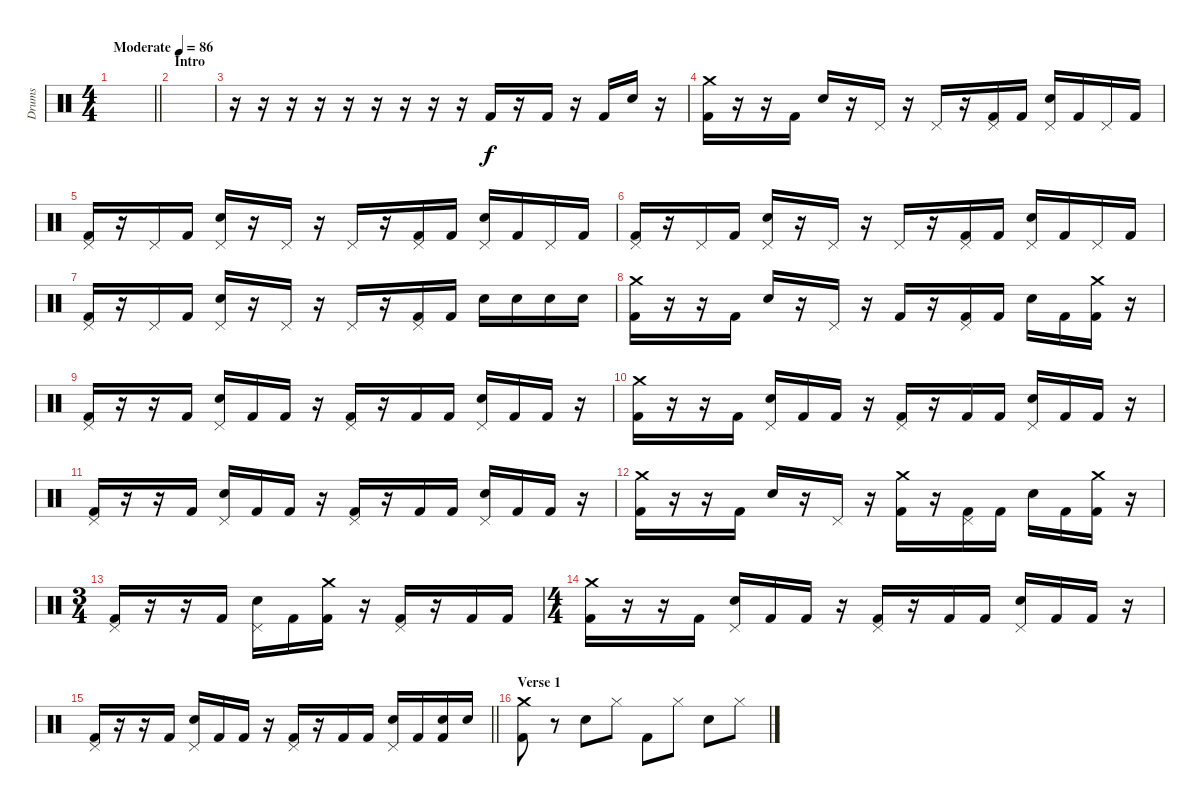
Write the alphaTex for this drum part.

\track ("Drums" "Drums") {instrument percussion}
\staff {score}
\articulation defaults
\ts (4 4)
\tempo (86 "Moderate")
\clef neutral
\barLineRight lightlight
\ks c
|
\section ("" "Intro")
|
r.16 r.16 r.16 r.16 r.16 r.16 r.16 r.16 r.16 "Kick (hit) 2".16 r.16 "Kick (hit) 2".16 r.16 "Kick (hit) 2".16 "Snare (hit) 2".16 r.16 |
("Crash medium (hit)" "Kick (hit) 2").16 r.16 r.16 "Kick (hit) 2".16 "Snare (hit) 2".16 r.16 "Pedal Hi-Hat (hit)".16 r.16 "Pedal Hi-Hat (hit)".16 r.16 ("Pedal Hi-Hat (hit)" "Kick (hit) 2").16 "Kick (hit) 2".16 ("Pedal Hi-Hat (hit)" "Snare (hit) 2").16 "Kick (hit) 2".16 "Pedal Hi-Hat (hit)".16 "Kick (hit) 2".16 |
("Pedal Hi-Hat (hit)" "Kick (hit) 2").16 r.16 "Pedal Hi-Hat (hit)".16 "Kick (hit) 2".16 ("Pedal Hi-Hat (hit)" "Snare (hit) 2").16 r.16 "Pedal Hi-Hat (hit)".16 r.16 "Pedal Hi-Hat (hit)".16 r.16 ("Pedal Hi-Hat (hit)" "Kick (hit) 2").16 "Kick (hit) 2".16 ("Pedal Hi-Hat (hit)" "Snare (hit) 2").16 "Kick (hit) 2".16 "Pedal Hi-Hat (hit)".16 "Kick (hit) 2".16 |
("Pedal Hi-Hat (hit)" "Kick (hit) 2").16 r.16 "Pedal Hi-Hat (hit)".16 "Kick (hit) 2".16 ("Pedal Hi-Hat (hit)" "Snare (hit) 2").16 r.16 "Pedal Hi-Hat (hit)".16 r.16 "Pedal Hi-Hat (hit)".16 r.16 ("Pedal Hi-Hat (hit)" "Kick (hit) 2").16 "Kick (hit) 2".16 ("Pedal Hi-Hat (hit)" "Snare (hit) 2").16 "Kick (hit) 2".16 "Pedal Hi-Hat (hit)".16 "Kick (hit) 2".16 |
("Pedal Hi-Hat (hit)" "Kick (hit) 2").16 r.16 "Pedal Hi-Hat (hit)".16 "Kick (hit) 2".16 ("Pedal Hi-Hat (hit)" "Snare (hit) 2").16 r.16 "Pedal Hi-Hat (hit)".16 r.16 "Pedal Hi-Hat (hit)".16 r.16 ("Pedal Hi-Hat (hit)" "Kick (hit) 2").16 "Kick (hit) 2".16 "Snare (hit) 2".16 "Snare (hit) 2".16 "Snare (hit) 2".16 "Snare (hit) 2".16 |
("Crash medium (hit)" "Kick (hit) 2").16 r.16 r.16 "Kick (hit) 2".16 "Snare (hit) 2".16 r.16 "Pedal Hi-Hat (hit)".16 r.16 "Kick (hit) 2".16 r.16 ("Pedal Hi-Hat (hit)" "Kick (hit) 2").16 "Kick (hit) 2".16 "Snare (hit) 2".16 "Kick (hit) 2".16 ("Crash medium (hit)" "Kick (hit) 2").16 r.16 |
("Pedal Hi-Hat (hit)" "Kick (hit) 2").16 r.16 r.16 "Kick (hit) 2".16 ("Pedal Hi-Hat (hit)" "Snare (hit) 2").16 "Kick (hit) 2".16 "Kick (hit) 2".16 r.16 ("Pedal Hi-Hat (hit)" "Kick (hit) 2").16 r.16 "Kick (hit) 2".16 "Kick (hit) 2".16 ("Pedal Hi-Hat (hit)" "Snare (hit) 2").16 "Kick (hit) 2".16 "Kick (hit) 2".16 r.16 |
("Crash medium (hit)" "Kick (hit) 2").16 r.16 r.16 "Kick (hit) 2".16 ("Pedal Hi-Hat (hit)" "Snare (hit) 2").16 "Kick (hit) 2".16 "Kick (hit) 2".16 r.16 ("Pedal Hi-Hat (hit)" "Kick (hit) 2").16 r.16 "Kick (hit) 2".16 "Kick (hit) 2".16 ("Pedal Hi-Hat (hit)" "Snare (hit) 2").16 "Kick (hit) 2".16 "Kick (hit) 2".16 r.16 |
("Pedal Hi-Hat (hit)" "Kick (hit) 2").16 r.16 r.16 "Kick (hit) 2".16 ("Pedal Hi-Hat (hit)" "Snare (hit) 2").16 "Kick (hit) 2".16 "Kick (hit) 2".16 r.16 ("Pedal Hi-Hat (hit)" "Kick (hit) 2").16 r.16 "Kick (hit) 2".16 "Kick (hit) 2".16 ("Pedal Hi-Hat (hit)" "Snare (hit) 2").16 "Kick (hit) 2".16 "Kick (hit) 2".16 r.16 |
("Crash medium (hit)" "Kick (hit) 2").16 r.16 r.16 "Kick (hit) 2".16 "Snare (hit) 2".16 r.16 "Pedal Hi-Hat (hit)".16 r.16 ("Crash medium (hit)" "Kick (hit) 2").16 r.16 ("Pedal Hi-Hat (hit)" "Kick (hit) 2").16 "Kick (hit) 2".16 "Snare (hit) 2".16 "Kick (hit) 2".16 ("Crash medium (hit)" "Kick (hit) 2").16 r.16 |
\ts (3 4)
("Pedal Hi-Hat (hit)" "Kick (hit) 2").16 r.16 r.16 "Kick (hit) 2".16 ("Pedal Hi-Hat (hit)" "Snare (hit) 2").16 "Kick (hit) 2".16 ("Crash medium (hit)" "Kick (hit) 2").16 r.16 ("Pedal Hi-Hat (hit)" "Kick (hit) 2").16 r.16 "Kick (hit) 2".16 "Kick (hit) 2".16 |
\ts (4 4)
("Crash medium (hit)" "Kick (hit) 2").16 r.16 r.16 "Kick (hit) 2".16 ("Pedal Hi-Hat (hit)" "Snare (hit) 2").16 "Kick (hit) 2".16 "Kick (hit) 2".16 r.16 ("Pedal Hi-Hat (hit)" "Kick (hit) 2").16 r.16 "Kick (hit) 2".16 "Kick (hit) 2".16 ("Pedal Hi-Hat (hit)" "Snare (hit) 2").16 "Kick (hit) 2".16 "Kick (hit) 2".16 r.16 |
\barLineRight lightlight
("Pedal Hi-Hat (hit)" "Kick (hit) 2").16 r.16 r.16 "Kick (hit) 2".16 ("Pedal Hi-Hat (hit)" "Snare (hit) 2").16 "Kick (hit) 2".16 "Kick (hit) 2".16 r.16 ("Pedal Hi-Hat (hit)" "Kick (hit) 2").16 r.16 "Kick (hit) 2".16 "Kick (hit) 2".16 ("Pedal Hi-Hat (hit)" "Snare (hit) 2").16 "Kick (hit) 2".16 ("Snare (hit) 2" "Kick (hit) 2").16 "Snare (hit) 2".16 |
\section ("" "Verse 1")
("Crash medium (hit)" "Kick (hit) 2").8 r.8 "Snare (hit) 2".8 "Hi-Hat (closed)".8 "Kick (hit) 2".8 "Hi-Hat (closed)".8 "Snare (hit) 2".8 "Hi-Hat (closed)".8
